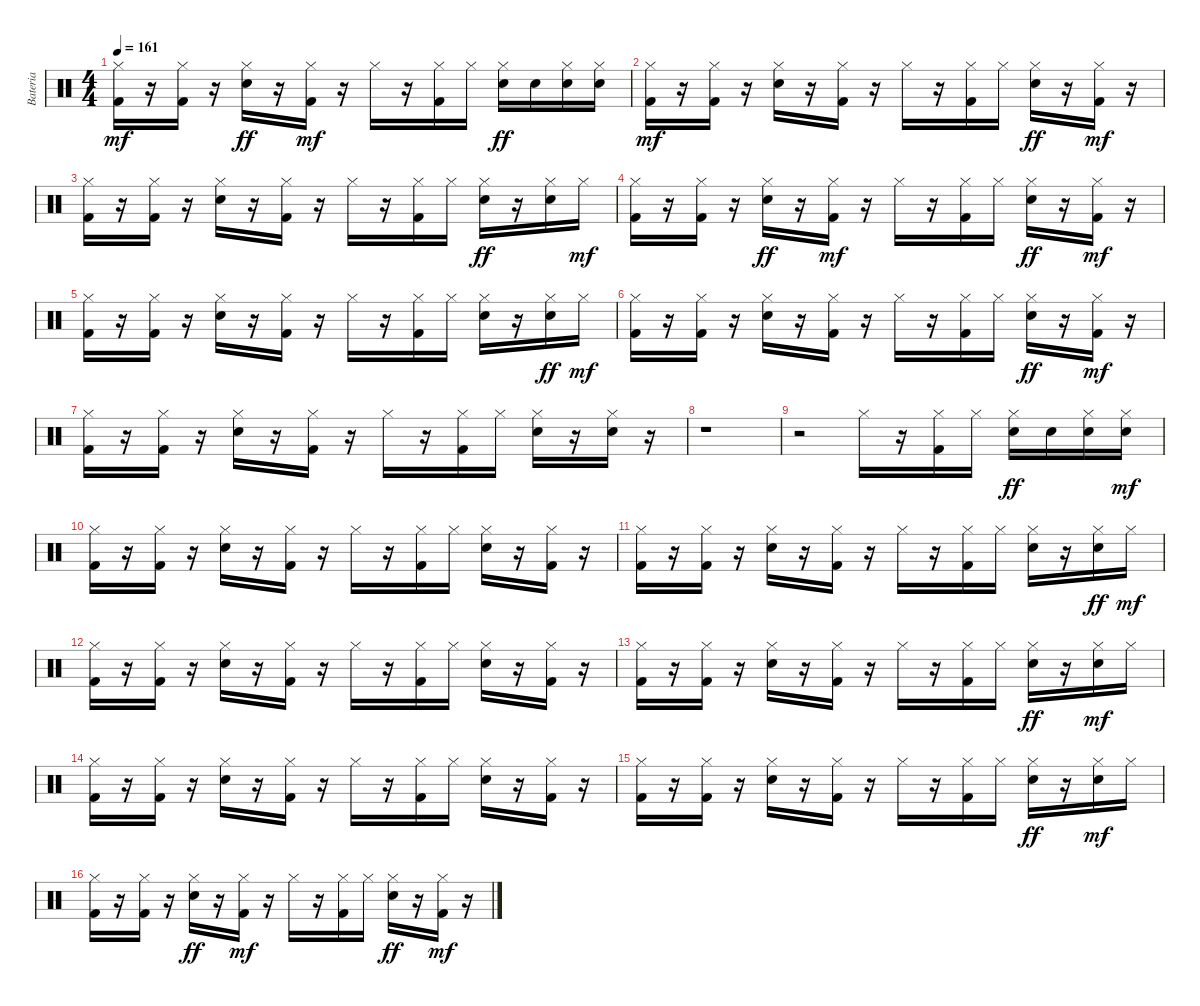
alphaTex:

\track ("Bateria" "Bateria") {instrument percussion}
\staff {score}
\articulation defaults
\ts (4 4)
\tempo 161
\clef neutral
\ks c
("Kick (hit) 2" "Hi-Hat (closed)").16{dy mf} r.16 ("Kick (hit) 2" "Hi-Hat (closed)").16 r.16 ("Hi-Hat (closed)" "Electric Snare (hit)").16{dy ff} r.16 ("Kick (hit) 2" "Hi-Hat (closed)").16{dy mf} r.16 "Hi-Hat (closed)".16 r.16 ("Hi-Hat (closed)" "Kick (hit) 2").16 "Hi-Hat (closed)".16 ("Hi-Hat (closed)" "Electric Snare (hit)").16{dy ff} "Electric Snare (hit)".16 ("Hi-Hat (closed)" "Electric Snare (hit)").16 ("Hi-Hat (closed)" "Electric Snare (hit)").16 |
("Kick (hit) 2" "Hi-Hat (closed)").16{dy mf} r.16 ("Hi-Hat (closed)" "Kick (hit) 2").16 r.16 ("Electric Snare (hit)" "Hi-Hat (closed)").16 r.16 ("Kick (hit) 2" "Hi-Hat (closed)").16 r.16 "Hi-Hat (closed)".16 r.16 ("Kick (hit) 2" "Hi-Hat (closed)").16 "Hi-Hat (closed)".16 ("Hi-Hat (closed)" "Electric Snare (hit)").16{dy ff} r.16 ("Hi-Hat (closed)" "Kick (hit) 2").16{dy mf} r.16 |
("Hi-Hat (closed)" "Kick (hit) 2").16 r.16 ("Kick (hit) 2" "Hi-Hat (closed)").16 r.16 ("Electric Snare (hit)" "Hi-Hat (closed)").16 r.16 ("Kick (hit) 2" "Hi-Hat (closed)").16 r.16 "Hi-Hat (closed)".16 r.16 ("Kick (hit) 2" "Hi-Hat (closed)").16 "Hi-Hat (closed)".16 ("Hi-Hat (closed)" "Electric Snare (hit)").16{dy ff} r.16 ("Hi-Hat (closed)" "Electric Snare (hit)").16 "Hi-Hat (closed)".16{dy mf} |
("Hi-Hat (closed)" "Kick (hit) 2").16 r.16 ("Hi-Hat (closed)" "Kick (hit) 2").16 r.16 ("Hi-Hat (closed)" "Electric Snare (hit)").16{dy ff} r.16 ("Hi-Hat (closed)" "Kick (hit) 2").16{dy mf} r.16 "Hi-Hat (closed)".16 r.16 ("Hi-Hat (closed)" "Kick (hit) 2").16 "Hi-Hat (closed)".16 ("Hi-Hat (closed)" "Electric Snare (hit)").16{dy ff} r.16 ("Kick (hit) 2" "Hi-Hat (closed)").16{dy mf} r.16 |
("Kick (hit) 2" "Hi-Hat (closed)").16 r.16 ("Kick (hit) 2" "Hi-Hat (closed)").16 r.16 ("Electric Snare (hit)" "Hi-Hat (closed)").16 r.16 ("Kick (hit) 2" "Hi-Hat (closed)").16 r.16 "Hi-Hat (closed)".16 r.16 ("Hi-Hat (closed)" "Kick (hit) 2").16 "Hi-Hat (closed)".16 ("Electric Snare (hit)" "Hi-Hat (closed)").16 r.16 ("Hi-Hat (closed)" "Electric Snare (hit)").16{dy ff} "Hi-Hat (closed)".16{dy mf} |
("Kick (hit) 2" "Hi-Hat (closed)").16 r.16 ("Kick (hit) 2" "Hi-Hat (closed)").16 r.16 ("Electric Snare (hit)" "Hi-Hat (closed)").16 r.16 ("Kick (hit) 2" "Hi-Hat (closed)").16 r.16 "Hi-Hat (closed)".16 r.16 ("Hi-Hat (closed)" "Kick (hit) 2").16 "Hi-Hat (closed)".16 ("Hi-Hat (closed)" "Electric Snare (hit)").16{dy ff} r.16 ("Hi-Hat (closed)" "Kick (hit) 2").16{dy mf} r.16 |
("Hi-Hat (closed)" "Kick (hit) 2").16 r.16 ("Hi-Hat (closed)" "Kick (hit) 2").16 r.16 ("Electric Snare (hit)" "Hi-Hat (closed)").16 r.16 ("Kick (hit) 2" "Hi-Hat (closed)").16 r.16 "Hi-Hat (closed)".16 r.16 ("Hi-Hat (closed)" "Kick (hit) 2").16 "Hi-Hat (closed)".16 ("Electric Snare (hit)" "Hi-Hat (closed)").16 r.16 ("Electric Snare (hit)" "Hi-Hat (closed)").16 r.16 |
r.1 |
r.2 "Hi-Hat (closed)".16 r.16 ("Hi-Hat (closed)" "Kick (hit) 2").16 "Hi-Hat (closed)".16 ("Hi-Hat (closed)" "Electric Snare (hit)").16{dy ff} "Electric Snare (hit)".16 ("Hi-Hat (closed)" "Electric Snare (hit)").16 ("Electric Snare (hit)" "Hi-Hat (closed)").16{dy mf} |
("Hi-Hat (closed)" "Kick (hit) 2").16 r.16 ("Hi-Hat (closed)" "Kick (hit) 2").16 r.16 ("Electric Snare (hit)" "Hi-Hat (closed)").16 r.16 ("Kick (hit) 2" "Hi-Hat (closed)").16 r.16 "Hi-Hat (closed)".16 r.16 ("Hi-Hat (closed)" "Kick (hit) 2").16 "Hi-Hat (closed)".16 ("Electric Snare (hit)" "Hi-Hat (closed)").16 r.16 ("Hi-Hat (closed)" "Kick (hit) 2").16 r.16 |
("Hi-Hat (closed)" "Kick (hit) 2").16 r.16 ("Hi-Hat (closed)" "Kick (hit) 2").16 r.16 ("Electric Snare (hit)" "Hi-Hat (closed)").16 r.16 ("Hi-Hat (closed)" "Kick (hit) 2").16 r.16 "Hi-Hat (closed)".16 r.16 ("Hi-Hat (closed)" "Kick (hit) 2").16 "Hi-Hat (closed)".16 ("Electric Snare (hit)" "Hi-Hat (closed)").16 r.16 ("Hi-Hat (closed)" "Electric Snare (hit)").16{dy ff} "Hi-Hat (closed)".16{dy mf} |
("Hi-Hat (closed)" "Kick (hit) 2").16 r.16 ("Hi-Hat (closed)" "Kick (hit) 2").16 r.16 ("Electric Snare (hit)" "Hi-Hat (closed)").16 r.16 ("Kick (hit) 2" "Hi-Hat (closed)").16 r.16 "Hi-Hat (closed)".16 r.16 ("Kick (hit) 2" "Hi-Hat (closed)").16 "Hi-Hat (closed)".16 ("Electric Snare (hit)" "Hi-Hat (closed)").16 r.16 ("Kick (hit) 2" "Hi-Hat (closed)").16 r.16 |
("Kick (hit) 2" "Hi-Hat (closed)").16 r.16 ("Hi-Hat (closed)" "Kick (hit) 2").16 r.16 ("Electric Snare (hit)" "Hi-Hat (closed)").16 r.16 ("Kick (hit) 2" "Hi-Hat (closed)").16 r.16 "Hi-Hat (closed)".16 r.16 ("Kick (hit) 2" "Hi-Hat (closed)").16 "Hi-Hat (closed)".16 ("Hi-Hat (closed)" "Electric Snare (hit)").16{dy ff} r.16 ("Electric Snare (hit)" "Hi-Hat (closed)").16{dy mf} "Hi-Hat (closed)".16 |
("Hi-Hat (closed)" "Kick (hit) 2").16 r.16 ("Hi-Hat (closed)" "Kick (hit) 2").16 r.16 ("Electric Snare (hit)" "Hi-Hat (closed)").16 r.16 ("Kick (hit) 2" "Hi-Hat (closed)").16 r.16 "Hi-Hat (closed)".16 r.16 ("Kick (hit) 2" "Hi-Hat (closed)").16 "Hi-Hat (closed)".16 ("Electric Snare (hit)" "Hi-Hat (closed)").16 r.16 ("Hi-Hat (closed)" "Kick (hit) 2").16 r.16 |
("Hi-Hat (closed)" "Kick (hit) 2").16 r.16 ("Kick (hit) 2" "Hi-Hat (closed)").16 r.16 ("Electric Snare (hit)" "Hi-Hat (closed)").16 r.16 ("Kick (hit) 2" "Hi-Hat (closed)").16 r.16 "Hi-Hat (closed)".16 r.16 ("Kick (hit) 2" "Hi-Hat (closed)").16 "Hi-Hat (closed)".16 ("Hi-Hat (closed)" "Electric Snare (hit)").16{dy ff} r.16 ("Electric Snare (hit)" "Hi-Hat (closed)").16{dy mf} "Hi-Hat (closed)".16 |
("Hi-Hat (closed)" "Kick (hit) 2").16 r.16 ("Hi-Hat (closed)" "Kick (hit) 2").16 r.16 ("Hi-Hat (closed)" "Electric Snare (hit)").16{dy ff} r.16 ("Kick (hit) 2" "Hi-Hat (closed)").16{dy mf} r.16 "Hi-Hat (closed)".16 r.16 ("Hi-Hat (closed)" "Kick (hit) 2").16 "Hi-Hat (closed)".16 ("Hi-Hat (closed)" "Electric Snare (hit)").16{dy ff} r.16 ("Hi-Hat (closed)" "Kick (hit) 2").16{dy mf} r.16
